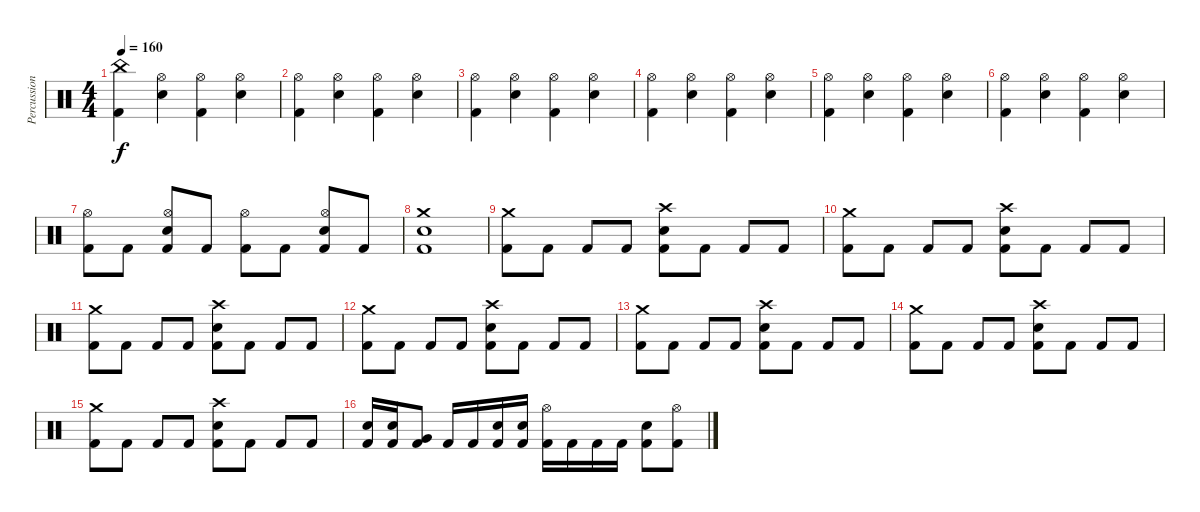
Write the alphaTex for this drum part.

\track ("Percussion" "Percussion") {instrument percussion}
\staff {score}
\articulation defaults
\ts (4 4)
\tempo 160
\clef neutral
\ks c
("China (hit)" "Kick (hit) 2").4{dy f} ("Hi-Hat (open)" "Electric Snare (hit)").4 ("Hi-Hat (open)" "Kick (hit) 2").4 ("Hi-Hat (open)" "Electric Snare (hit)").4 |
("Hi-Hat (open)" "Kick (hit) 2").4 ("Hi-Hat (open)" "Electric Snare (hit)").4 ("Hi-Hat (open)" "Kick (hit) 2").4 ("Hi-Hat (open)" "Electric Snare (hit)").4 |
("Hi-Hat (open)" "Kick (hit) 2").4 ("Hi-Hat (open)" "Electric Snare (hit)").4 ("Hi-Hat (open)" "Kick (hit) 2").4 ("Hi-Hat (open)" "Electric Snare (hit)").4 |
("Hi-Hat (open)" "Kick (hit) 2").4 ("Hi-Hat (open)" "Electric Snare (hit)").4 ("Hi-Hat (open)" "Kick (hit) 2").4 ("Hi-Hat (open)" "Electric Snare (hit)").4 |
("Hi-Hat (open)" "Kick (hit) 2").4 ("Hi-Hat (open)" "Electric Snare (hit)").4 ("Hi-Hat (open)" "Kick (hit) 2").4 ("Hi-Hat (open)" "Electric Snare (hit)").4 |
("Hi-Hat (open)" "Kick (hit) 2").4 ("Hi-Hat (open)" "Electric Snare (hit)").4 ("Hi-Hat (open)" "Kick (hit) 2").4 ("Hi-Hat (open)" "Electric Snare (hit)").4 |
("Hi-Hat (open)" "Kick (hit) 2").8 "Kick (hit) 2".8 ("Hi-Hat (open)" "Electric Snare (hit)" "Kick (hit) 2").8 "Kick (hit) 2".8 ("Hi-Hat (open)" "Kick (hit) 2").8 "Kick (hit) 2".8 ("Hi-Hat (open)" "Electric Snare (hit)" "Kick (hit) 2").8 "Kick (hit) 2".8 |
("Crash medium (hit)" "Electric Snare (hit)" "Kick (hit) 2").1 |
("Crash medium (hit)" "Kick (hit) 2").8 "Kick (hit) 2".8 "Kick (hit) 2".8 "Kick (hit) 2".8 ("Crash high (hit)" "Electric Snare (hit)" "Kick (hit) 2").8 "Kick (hit) 2".8 "Kick (hit) 2".8 "Kick (hit) 2".8 |
("Crash medium (hit)" "Kick (hit) 2").8 "Kick (hit) 2".8 "Kick (hit) 2".8 "Kick (hit) 2".8 ("Crash high (hit)" "Electric Snare (hit)" "Kick (hit) 2").8 "Kick (hit) 2".8 "Kick (hit) 2".8 "Kick (hit) 2".8 |
("Crash medium (hit)" "Kick (hit) 2").8 "Kick (hit) 2".8 "Kick (hit) 2".8 "Kick (hit) 2".8 ("Crash high (hit)" "Electric Snare (hit)" "Kick (hit) 2").8 "Kick (hit) 2".8 "Kick (hit) 2".8 "Kick (hit) 2".8 |
("Crash medium (hit)" "Kick (hit) 2").8 "Kick (hit) 2".8 "Kick (hit) 2".8 "Kick (hit) 2".8 ("Crash high (hit)" "Electric Snare (hit)" "Kick (hit) 2").8 "Kick (hit) 2".8 "Kick (hit) 2".8 "Kick (hit) 2".8 |
("Crash medium (hit)" "Kick (hit) 2").8 "Kick (hit) 2".8 "Kick (hit) 2".8 "Kick (hit) 2".8 ("Crash high (hit)" "Electric Snare (hit)" "Kick (hit) 2").8 "Kick (hit) 2".8 "Kick (hit) 2".8 "Kick (hit) 2".8 |
("Crash medium (hit)" "Kick (hit) 2").8 "Kick (hit) 2".8 "Kick (hit) 2".8 "Kick (hit) 2".8 ("Crash high (hit)" "Electric Snare (hit)" "Kick (hit) 2").8 "Kick (hit) 2".8 "Kick (hit) 2".8 "Kick (hit) 2".8 |
("Crash medium (hit)" "Kick (hit) 2").8 "Kick (hit) 2".8 "Kick (hit) 2".8 "Kick (hit) 2".8 ("Crash high (hit)" "Electric Snare (hit)" "Kick (hit) 2").8 "Kick (hit) 2".8 "Kick (hit) 2".8 "Kick (hit) 2".8 |
("Electric Snare (hit)" "Kick (hit) 2").16 ("Electric Snare (hit)" "Kick (hit) 2").16 ("Very Low Tom (hit)" "Kick (hit) 2").8 "Kick (hit) 2".16 "Kick (hit) 2".16 ("Electric Snare (hit)" "Kick (hit) 2").16 ("Electric Snare (hit)" "Kick (hit) 2").16 ("Hi-Hat (open)" "Kick (hit) 2").16 "Kick (hit) 2".16 "Kick (hit) 2".16 "Kick (hit) 2".16 ("Electric Snare (hit)" "Kick (hit) 2").8 ("Hi-Hat (open)" "Kick (hit) 2").8
